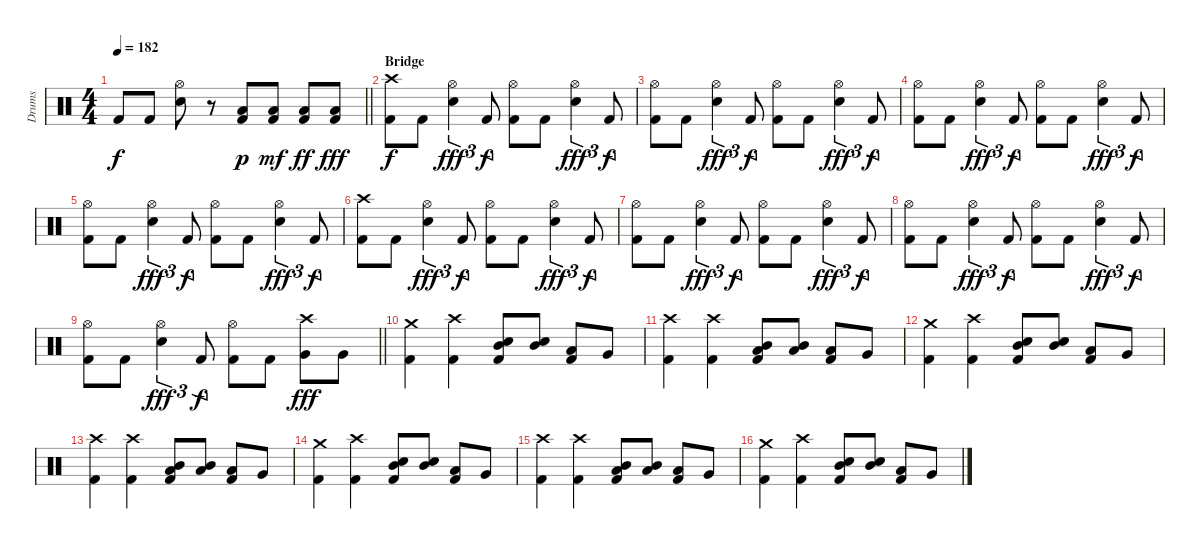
\track ("Drums" "Drums") {instrument percussion}
\staff {score}
\articulation defaults
\ts (4 4)
\tempo 182
\clef neutral
\barLineRight lightlight
\ks c "Kick (hit) 2".8{dy f} "Kick (hit) 2".8
("Hi-Hat (open)" "Electric Snare (hit)").8 r.8 ("Low Tom (hit)" "Kick (hit) 2").8{dy p} ("Low Tom (hit)" "Kick (hit) 2").8{dy mf} ("Low Tom (hit)" "Kick (hit) 2").8{dy ff} ("Low Tom (hit)" "Kick (hit) 2").8{dy fff} |
\section ("" "Bridge")
("Crash high (hit)" "Kick (hit) 2").8{dy f} "Kick (hit) 2".8 ("Hi-Hat (open)" "Electric Snare (hit)").4{tu (3 2) dy fff} "Kick (hit) 2".8{tu (3 2) dy f} ("Hi-Hat (open)" "Kick (hit) 2").8 "Kick (hit) 2".8 ("Hi-Hat (open)" "Electric Snare (hit)").4{tu (3 2) dy fff} "Kick (hit) 2".8{tu (3 2) dy f} |
("Hi-Hat (open)" "Kick (hit) 2").8 "Kick (hit) 2".8 ("Hi-Hat (open)" "Electric Snare (hit)").4{tu (3 2) dy fff} "Kick (hit) 2".8{tu (3 2) dy f} ("Hi-Hat (open)" "Kick (hit) 2").8 "Kick (hit) 2".8 ("Hi-Hat (open)" "Electric Snare (hit)").4{tu (3 2) dy fff} "Kick (hit) 2".8{tu (3 2) dy f} |
("Hi-Hat (open)" "Kick (hit) 2").8 "Kick (hit) 2".8 ("Hi-Hat (open)" "Electric Snare (hit)").4{tu (3 2) dy fff} "Kick (hit) 2".8{tu (3 2) dy f} ("Hi-Hat (open)" "Kick (hit) 2").8 "Kick (hit) 2".8 ("Hi-Hat (open)" "Electric Snare (hit)").4{tu (3 2) dy fff} "Kick (hit) 2".8{tu (3 2) dy f} |
("Hi-Hat (open)" "Kick (hit) 2").8 "Kick (hit) 2".8 ("Hi-Hat (open)" "Electric Snare (hit)").4{tu (3 2) dy fff} "Kick (hit) 2".8{tu (3 2) dy f} ("Hi-Hat (open)" "Kick (hit) 2").8 "Kick (hit) 2".8 ("Hi-Hat (open)" "Electric Snare (hit)").4{tu (3 2) dy fff} "Kick (hit) 2".8{tu (3 2) dy f} |
("Crash high (hit)" "Kick (hit) 2").8 "Kick (hit) 2".8 ("Hi-Hat (open)" "Electric Snare (hit)").4{tu (3 2) dy fff} "Kick (hit) 2".8{tu (3 2) dy f} ("Hi-Hat (open)" "Kick (hit) 2").8 "Kick (hit) 2".8 ("Hi-Hat (open)" "Electric Snare (hit)").4{tu (3 2) dy fff} "Kick (hit) 2".8{tu (3 2) dy f} |
("Hi-Hat (open)" "Kick (hit) 2").8 "Kick (hit) 2".8 ("Hi-Hat (open)" "Electric Snare (hit)").4{tu (3 2) dy fff} "Kick (hit) 2".8{tu (3 2) dy f} ("Hi-Hat (open)" "Kick (hit) 2").8 "Kick (hit) 2".8 ("Hi-Hat (open)" "Electric Snare (hit)").4{tu (3 2) dy fff} "Kick (hit) 2".8{tu (3 2) dy f} |
("Hi-Hat (open)" "Kick (hit) 2").8 "Kick (hit) 2".8 ("Hi-Hat (open)" "Electric Snare (hit)").4{tu (3 2) dy fff} "Kick (hit) 2".8{tu (3 2) dy f} ("Hi-Hat (open)" "Kick (hit) 2").8 "Kick (hit) 2".8 ("Hi-Hat (open)" "Electric Snare (hit)").4{tu (3 2) dy fff} "Kick (hit) 2".8{tu (3 2) dy f} |
\barLineRight lightlight
("Hi-Hat (open)" "Kick (hit) 2").8 "Kick (hit) 2".8 ("Hi-Hat (open)" "Electric Snare (hit)").4{tu (3 2) dy fff} "Kick (hit) 2".8{tu (3 2) dy f} ("Hi-Hat (open)" "Kick (hit) 2").8 "Kick (hit) 2".8 ("Crash high (hit)" "Very Low Tom (hit)").8{dy fff} "Very Low Tom (hit)".8 |
("Crash medium (hit)" "Kick (hit) 2").4 ("Crash high (hit)" "Kick (hit) 2").4 ("Electric Snare (hit)" "Mid Tom (hit)" "Kick (hit) 2").8 ("Electric Snare (hit)" "Mid Tom (hit)").8 ("Low Tom (hit)" "Kick (hit) 2").8 "Very Low Tom (hit)".8 |
("Crash high (hit)" "Kick (hit) 2").4 ("Crash high (hit)" "Kick (hit) 2").4 ("Low Floor Tom (hit)" "Mid Tom (hit)" "Kick (hit) 2").8 ("Low Floor Tom (hit)" "Mid Tom (hit)").8 ("Low Tom (hit)" "Kick (hit) 2").8 "Very Low Tom (hit)".8 |
("Crash medium (hit)" "Kick (hit) 2").4 ("Crash high (hit)" "Kick (hit) 2").4 ("Electric Snare (hit)" "Mid Tom (hit)" "Kick (hit) 2").8 ("Electric Snare (hit)" "Mid Tom (hit)").8 ("Low Tom (hit)" "Kick (hit) 2").8 "Very Low Tom (hit)".8 |
("Crash high (hit)" "Kick (hit) 2").4 ("Crash high (hit)" "Kick (hit) 2").4 ("Low Floor Tom (hit)" "Mid Tom (hit)" "Kick (hit) 2").8 ("Low Floor Tom (hit)" "Mid Tom (hit)").8 ("Low Tom (hit)" "Kick (hit) 2").8 "Very Low Tom (hit)".8 |
("Crash medium (hit)" "Kick (hit) 2").4 ("Crash high (hit)" "Kick (hit) 2").4 ("Electric Snare (hit)" "Mid Tom (hit)" "Kick (hit) 2").8 ("Electric Snare (hit)" "Mid Tom (hit)").8 ("Low Tom (hit)" "Kick (hit) 2").8 "Very Low Tom (hit)".8 |
("Crash high (hit)" "Kick (hit) 2").4 ("Crash high (hit)" "Kick (hit) 2").4 ("Low Floor Tom (hit)" "Mid Tom (hit)" "Kick (hit) 2").8 ("Low Floor Tom (hit)" "Mid Tom (hit)").8 ("Low Tom (hit)" "Kick (hit) 2").8 "Very Low Tom (hit)".8 |
("Crash medium (hit)" "Kick (hit) 2").4 ("Crash high (hit)" "Kick (hit) 2").4 ("Electric Snare (hit)" "Mid Tom (hit)" "Kick (hit) 2").8 ("Electric Snare (hit)" "Mid Tom (hit)").8 ("Low Tom (hit)" "Kick (hit) 2").8 "Very Low Tom (hit)".8
